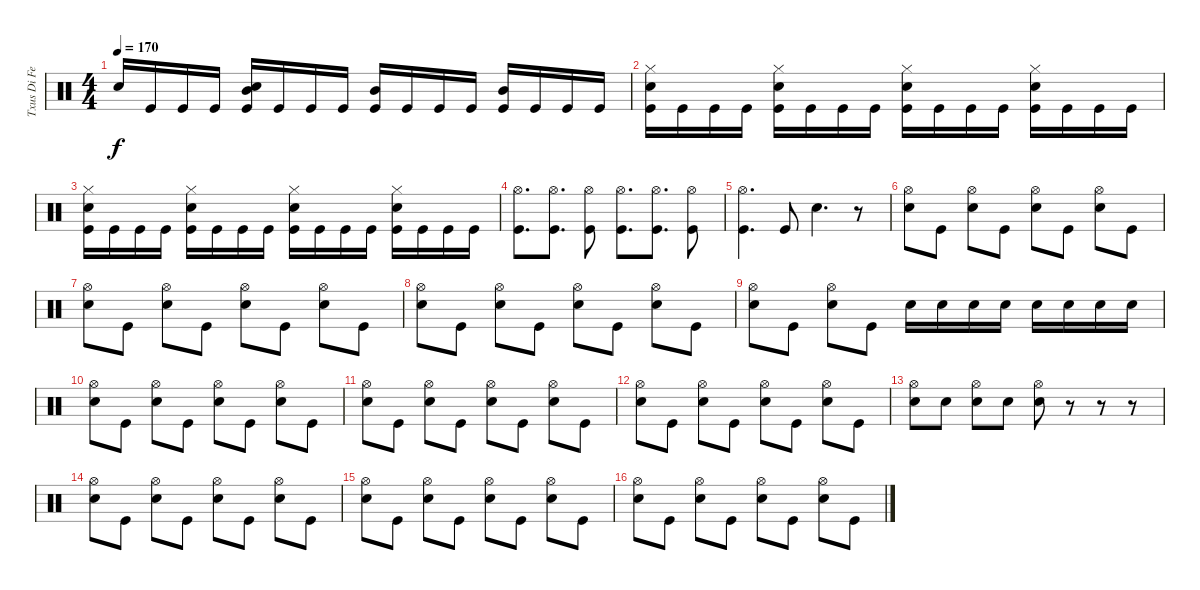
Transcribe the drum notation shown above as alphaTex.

\track ("Txus Di Fellatio" "Txus Di Fe") {instrument percussion}
\staff {score}
\articulation defaults
\ts (4 4)
\tempo 170
\clef neutral
\ks c "Snare (hit) 2".16{dy f} "Kick (hit)".16 "Kick (hit)".16 "Kick (hit)".16
("Snare (hit) 2" "Kick (hit)" "Mid Tom (hit)").16 "Kick (hit)".16 "Kick (hit)".16 "Kick (hit)".16 ("Kick (hit)" "Mid Tom (hit)").16 "Kick (hit)".16 "Kick (hit)".16 "Kick (hit)".16 ("Kick (hit)" "Mid Tom (hit)").16 "Kick (hit)".16 "Kick (hit)".16 "Kick (hit)".16 |
("Hi-Hat (closed)" "Snare (hit) 2" "Kick (hit)").16 "Kick (hit)".16 "Kick (hit)".16 "Kick (hit)".16 ("Hi-Hat (closed)" "Snare (hit) 2" "Kick (hit)").16 "Kick (hit)".16 "Kick (hit)".16 "Kick (hit)".16 ("Hi-Hat (closed)" "Snare (hit) 2" "Kick (hit)").16 "Kick (hit)".16 "Kick (hit)".16 "Kick (hit)".16 ("Hi-Hat (closed)" "Snare (hit) 2" "Kick (hit)").16 "Kick (hit)".16 "Kick (hit)".16 "Kick (hit)".16 |
("Hi-Hat (closed)" "Snare (hit) 2" "Kick (hit)").16 "Kick (hit)".16 "Kick (hit)".16 "Kick (hit)".16 ("Hi-Hat (closed)" "Snare (hit) 2" "Kick (hit)").16 "Kick (hit)".16 "Kick (hit)".16 "Kick (hit)".16 ("Hi-Hat (closed)" "Snare (hit) 2" "Kick (hit)").16 "Kick (hit)".16 "Kick (hit)".16 "Kick (hit)".16 ("Hi-Hat (closed)" "Snare (hit) 2" "Kick (hit)").16 "Kick (hit)".16 "Kick (hit)".16 "Kick (hit)".16 |
("Hi-Hat (open)" "Kick (hit)").8{d} ("Hi-Hat (open)" "Kick (hit)").8{d} ("Hi-Hat (open)" "Kick (hit)").8 ("Hi-Hat (open)" "Kick (hit)").8{d} ("Hi-Hat (open)" "Kick (hit)").8{d} ("Hi-Hat (open)" "Kick (hit)").8 |
("Hi-Hat (open)" "Kick (hit)").4{d} "Kick (hit)".8 "Snare (hit) 2".4{d} r.8 |
("Hi-Hat (open)" "Snare (hit) 2").8 "Kick (hit)".8 ("Hi-Hat (open)" "Snare (hit) 2").8 "Kick (hit)".8 ("Hi-Hat (open)" "Snare (hit) 2").8 "Kick (hit)".8 ("Hi-Hat (open)" "Snare (hit) 2").8 "Kick (hit)".8 |
("Hi-Hat (open)" "Snare (hit) 2").8 "Kick (hit)".8 ("Hi-Hat (open)" "Snare (hit) 2").8 "Kick (hit)".8 ("Hi-Hat (open)" "Snare (hit) 2").8 "Kick (hit)".8 ("Hi-Hat (open)" "Snare (hit) 2").8 "Kick (hit)".8 |
("Hi-Hat (open)" "Snare (hit) 2").8 "Kick (hit)".8 ("Hi-Hat (open)" "Snare (hit) 2").8 "Kick (hit)".8 ("Hi-Hat (open)" "Snare (hit) 2").8 "Kick (hit)".8 ("Hi-Hat (open)" "Snare (hit) 2").8 "Kick (hit)".8 |
("Hi-Hat (open)" "Snare (hit) 2").8 "Kick (hit)".8 ("Hi-Hat (open)" "Snare (hit) 2").8 "Kick (hit)".8 "Snare (hit) 2".16 "Snare (hit) 2".16 "Snare (hit) 2".16 "Snare (hit) 2".16 "Snare (hit) 2".16 "Snare (hit) 2".16 "Snare (hit) 2".16 "Snare (hit) 2".16 |
("Hi-Hat (open)" "Snare (hit) 2").8 "Kick (hit)".8 ("Hi-Hat (open)" "Snare (hit) 2").8 "Kick (hit)".8 ("Hi-Hat (open)" "Snare (hit) 2").8 "Kick (hit)".8 ("Hi-Hat (open)" "Snare (hit) 2").8 "Kick (hit)".8 |
("Hi-Hat (open)" "Snare (hit) 2").8 "Kick (hit)".8 ("Hi-Hat (open)" "Snare (hit) 2").8 "Kick (hit)".8 ("Hi-Hat (open)" "Snare (hit) 2").8 "Kick (hit)".8 ("Hi-Hat (open)" "Snare (hit) 2").8 "Kick (hit)".8 |
("Hi-Hat (open)" "Snare (hit) 2").8 "Kick (hit)".8 ("Hi-Hat (open)" "Snare (hit) 2").8 "Kick (hit)".8 ("Hi-Hat (open)" "Snare (hit) 2").8 "Kick (hit)".8 ("Hi-Hat (open)" "Snare (hit) 2").8 "Kick (hit)".8 |
("Hi-Hat (open)" "Snare (hit) 2").8 "Snare (hit) 2".8 ("Hi-Hat (open)" "Snare (hit) 2").8 "Snare (hit) 2".8 ("Hi-Hat (open)" "Snare (hit) 2").8 r.8 r.8 r.8 |
("Hi-Hat (open)" "Snare (hit) 2").8 "Kick (hit)".8 ("Hi-Hat (open)" "Snare (hit) 2").8 "Kick (hit)".8 ("Hi-Hat (open)" "Snare (hit) 2").8 "Kick (hit)".8 ("Hi-Hat (open)" "Snare (hit) 2").8 "Kick (hit)".8 |
("Hi-Hat (open)" "Snare (hit) 2").8 "Kick (hit)".8 ("Hi-Hat (open)" "Snare (hit) 2").8 "Kick (hit)".8 ("Hi-Hat (open)" "Snare (hit) 2").8 "Kick (hit)".8 ("Hi-Hat (open)" "Snare (hit) 2").8 "Kick (hit)".8 |
("Hi-Hat (open)" "Snare (hit) 2").8 "Kick (hit)".8 ("Hi-Hat (open)" "Snare (hit) 2").8 "Kick (hit)".8 ("Hi-Hat (open)" "Snare (hit) 2").8 "Kick (hit)".8 ("Hi-Hat (open)" "Snare (hit) 2").8 "Kick (hit)".8
